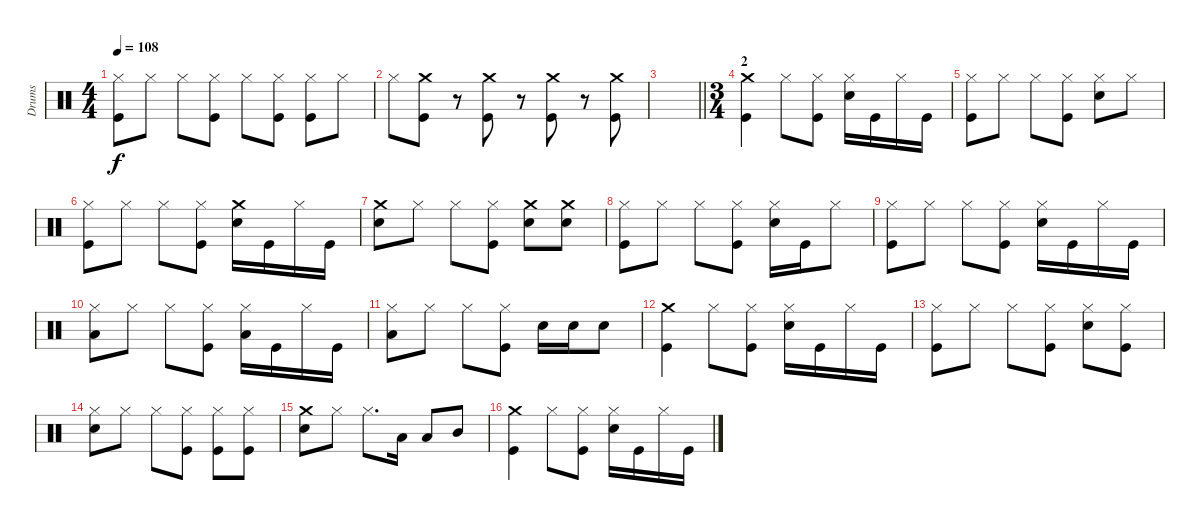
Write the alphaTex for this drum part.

\track ("Drums" "Drums") {instrument percussion}
\staff {score}
\articulation defaults
\ts (4 4)
\tempo 108
\clef neutral
\ks c
("Kick (hit)" "Hi-Hat (closed)").8{dy f} "Hi-Hat (closed)".8 "Hi-Hat (closed)".8 ("Kick (hit)" "Hi-Hat (closed)").8 "Hi-Hat (closed)".8 ("Kick (hit)" "Hi-Hat (closed)").8 ("Kick (hit)" "Hi-Hat (closed)").8 "Hi-Hat (closed)".8 |
"Hi-Hat (closed)".8 ("Kick (hit)" "Crash medium (hit)").8 r.8 ("Kick (hit)" "Crash medium (hit)").8 r.8 ("Kick (hit)" "Crash medium (hit)").8 r.8 ("Kick (hit)" "Crash medium (hit)").8 |
\barLineRight lightlight
|
\ts (3 4)
\section ("" "2")
("Crash medium (hit)" "Kick (hit)").4 "Hi-Hat (closed)".8 ("Kick (hit)" "Hi-Hat (closed)").8 ("Snare (hit) 2" "Hi-Hat (closed)").16 "Kick (hit)".16 "Hi-Hat (closed)".16 "Kick (hit)".16 |
("Hi-Hat (closed)" "Kick (hit)").8 "Hi-Hat (closed)".8 "Hi-Hat (closed)".8 ("Hi-Hat (closed)" "Kick (hit)").8 ("Snare (hit) 2" "Hi-Hat (closed)").8 "Hi-Hat (closed)".8 |
("Hi-Hat (closed)" "Kick (hit)").8 "Hi-Hat (closed)".8 "Hi-Hat (closed)".8 ("Kick (hit)" "Hi-Hat (closed)").8 ("Crash medium (hit)" "Snare (hit) 2").16 "Kick (hit)".16 "Hi-Hat (closed)".16 "Kick (hit)".16 |
("Crash medium (hit)" "Snare (hit) 2").8 "Hi-Hat (closed)".8 "Hi-Hat (closed)".8 ("Kick (hit)" "Hi-Hat (closed)").8 ("Crash medium (hit)" "Snare (hit) 2").8 ("Snare (hit) 2" "Crash medium (hit)").8 |
("Hi-Hat (closed)" "Kick (hit)").8 "Hi-Hat (closed)".8 "Hi-Hat (closed)".8 ("Kick (hit)" "Hi-Hat (closed)").8 ("Hi-Hat (closed)" "Snare (hit) 2").16 "Kick (hit)".16 "Hi-Hat (closed)".8 |
("Hi-Hat (closed)" "Kick (hit)").8 "Hi-Hat (closed)".8 "Hi-Hat (closed)".8 ("Kick (hit)" "Hi-Hat (closed)").8 ("Hi-Hat (closed)" "Snare (hit) 2").16 "Kick (hit)".16 "Hi-Hat (closed)".16 "Kick (hit)".16 |
("Hi-Hat (closed)" "Low Tom (hit)").8 "Hi-Hat (closed)".8 "Hi-Hat (closed)".8 ("Kick (hit)" "Hi-Hat (closed)").8 ("Hi-Hat (closed)" "Low Tom (hit)").16 "Kick (hit)".16 "Hi-Hat (closed)".16 "Kick (hit)".16 |
("Hi-Hat (closed)" "Low Tom (hit)").8 "Hi-Hat (closed)".8 "Hi-Hat (closed)".8 ("Kick (hit)" "Hi-Hat (closed)").8 "Snare (hit) 2".16 "Snare (hit) 2".16 "Snare (hit) 2".8 |
("Kick (hit)" "Crash medium (hit)").4 "Hi-Hat (closed)".8 ("Kick (hit)" "Hi-Hat (closed)").8 ("Hi-Hat (closed)" "Snare (hit) 2").16 "Kick (hit)".16 "Hi-Hat (closed)".16 "Kick (hit)".16 |
("Hi-Hat (closed)" "Kick (hit)").8 "Hi-Hat (closed)".8 "Hi-Hat (closed)".8 ("Kick (hit)" "Hi-Hat (closed)").8 ("Hi-Hat (closed)" "Snare (hit) 2").8 ("Kick (hit)" "Hi-Hat (closed)").8 |
("Hi-Hat (closed)" "Snare (hit) 2").8 "Hi-Hat (closed)".8 "Hi-Hat (closed)".8 ("Kick (hit)" "Hi-Hat (closed)").8 ("Hi-Hat (closed)" "Kick (hit)").8 ("Hi-Hat (closed)" "Kick (hit)").8 |
("Crash medium (hit)" "Snare (hit) 2").8 "Hi-Hat (closed)".8 "Hi-Hat (closed)".8{d} "Low Tom (hit)".16 "Low Tom (hit)".8 "Mid Tom (hit)".8 |
("Crash medium (hit)" "Kick (hit)").4 "Hi-Hat (closed)".8 ("Kick (hit)" "Hi-Hat (closed)").8 ("Hi-Hat (closed)" "Snare (hit) 2").16 "Kick (hit)".16 "Hi-Hat (closed)".16 "Kick (hit)".16
